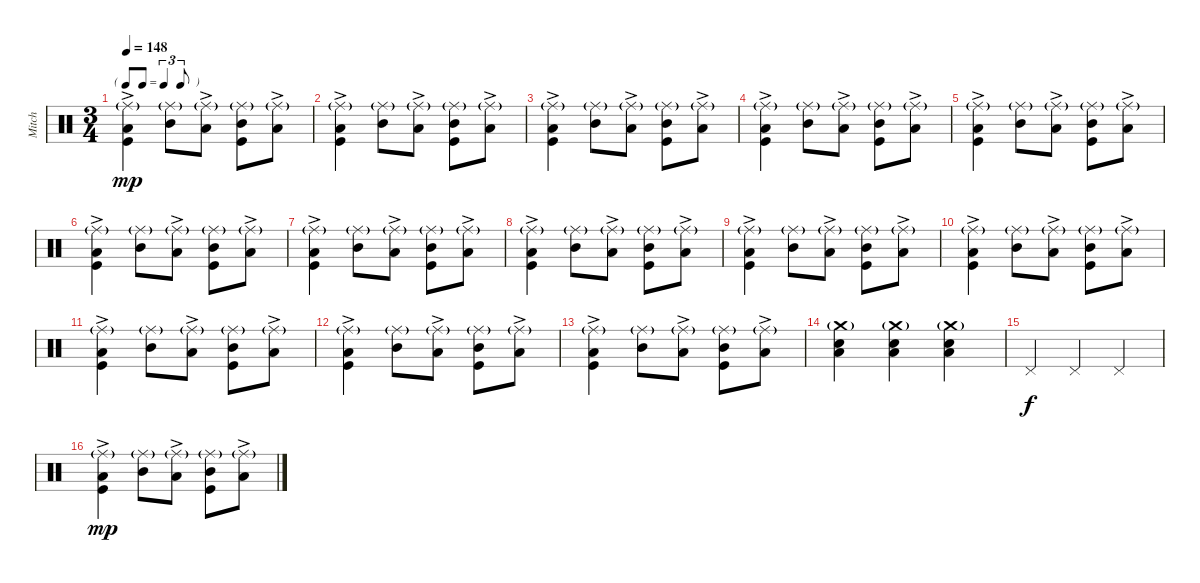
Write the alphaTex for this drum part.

\track ("Mitch" "Mitch") {instrument percussion}
\staff {score}
\articulation defaults
\ts (3 4)
\tf triplet8th
\tempo 148
\clef neutral
\ks c
("Low Floor Tom (hit)"{ac} "Kick (hit)" "Ride (middle)"{g}).4{dy mp} ("Mid Tom (hit)" "Ride (middle)"{g}).8 ("Low Tom (hit)"{ac} "Ride (middle)"{g}).8 ("Mid Tom (hit)" "Kick (hit)" "Ride (middle)"{g}).8 ("Low Tom (hit)"{ac} "Ride (middle)"{g}).8 |
("Low Floor Tom (hit)"{ac} "Kick (hit)" "Ride (middle)"{g}).4 ("Mid Tom (hit)" "Ride (middle)"{g}).8 ("Low Tom (hit)"{ac} "Ride (middle)"{g}).8 ("Mid Tom (hit)" "Kick (hit)" "Ride (middle)"{g}).8 ("Low Tom (hit)"{ac} "Ride (middle)"{g}).8 |
("Low Floor Tom (hit)"{ac} "Kick (hit)" "Ride (middle)"{g}).4 ("Mid Tom (hit)" "Ride (middle)"{g}).8 ("Low Tom (hit)"{ac} "Ride (middle)"{g}).8 ("Mid Tom (hit)" "Kick (hit)" "Ride (middle)"{g}).8 ("Low Tom (hit)"{ac} "Ride (middle)"{g}).8 |
("Low Floor Tom (hit)"{ac} "Kick (hit)" "Ride (middle)"{g}).4 ("Mid Tom (hit)" "Ride (middle)"{g}).8 ("Low Tom (hit)"{ac} "Ride (middle)"{g}).8 ("Mid Tom (hit)" "Kick (hit)" "Ride (middle)"{g}).8 ("Low Tom (hit)"{ac} "Ride (middle)"{g}).8 |
("Low Floor Tom (hit)"{ac} "Kick (hit)" "Ride (middle)"{g}).4 ("Mid Tom (hit)" "Ride (middle)"{g}).8 ("Low Tom (hit)"{ac} "Ride (middle)"{g}).8 ("Mid Tom (hit)" "Kick (hit)" "Ride (middle)"{g}).8 ("Low Tom (hit)"{ac} "Ride (middle)"{g}).8 |
("Low Floor Tom (hit)"{ac} "Kick (hit)" "Ride (middle)"{g}).4 ("Mid Tom (hit)" "Ride (middle)"{g}).8 ("Low Tom (hit)"{ac} "Ride (middle)"{g}).8 ("Mid Tom (hit)" "Kick (hit)" "Ride (middle)"{g}).8 ("Low Tom (hit)"{ac} "Ride (middle)"{g}).8 |
("Low Floor Tom (hit)"{ac} "Kick (hit)" "Ride (middle)"{g}).4 ("Mid Tom (hit)" "Ride (middle)"{g}).8 ("Low Tom (hit)"{ac} "Ride (middle)"{g}).8 ("Mid Tom (hit)" "Kick (hit)" "Ride (middle)"{g}).8 ("Low Tom (hit)"{ac} "Ride (middle)"{g}).8 |
("Low Floor Tom (hit)"{ac} "Kick (hit)" "Ride (middle)"{g}).4 ("Mid Tom (hit)" "Ride (middle)"{g}).8 ("Low Tom (hit)"{ac} "Ride (middle)"{g}).8 ("Mid Tom (hit)" "Kick (hit)" "Ride (middle)"{g}).8 ("Low Tom (hit)"{ac} "Ride (middle)"{g}).8 |
("Low Floor Tom (hit)"{ac} "Kick (hit)" "Ride (middle)"{g}).4 ("Mid Tom (hit)" "Ride (middle)"{g}).8 ("Low Tom (hit)"{ac} "Ride (middle)"{g}).8 ("Mid Tom (hit)" "Kick (hit)" "Ride (middle)"{g}).8 ("Low Tom (hit)"{ac} "Ride (middle)"{g}).8 |
("Low Floor Tom (hit)"{ac} "Kick (hit)" "Ride (middle)"{g}).4 ("Mid Tom (hit)" "Ride (middle)"{g}).8 ("Low Tom (hit)"{ac} "Ride (middle)"{g}).8 ("Mid Tom (hit)" "Kick (hit)" "Ride (middle)"{g}).8 ("Low Tom (hit)"{ac} "Ride (middle)"{g}).8 |
("Low Floor Tom (hit)"{ac} "Kick (hit)" "Ride (middle)"{g}).4 ("Mid Tom (hit)" "Ride (middle)"{g}).8 ("Low Tom (hit)"{ac} "Ride (middle)"{g}).8 ("Mid Tom (hit)" "Kick (hit)" "Ride (middle)"{g}).8 ("Low Tom (hit)"{ac} "Ride (middle)"{g}).8 |
("Low Floor Tom (hit)"{ac} "Kick (hit)" "Ride (middle)"{g}).4 ("Mid Tom (hit)" "Ride (middle)"{g}).8 ("Low Tom (hit)"{ac} "Ride (middle)"{g}).8 ("Mid Tom (hit)" "Kick (hit)" "Ride (middle)"{g}).8 ("Low Tom (hit)"{ac} "Ride (middle)"{g}).8 |
("Low Floor Tom (hit)"{ac} "Kick (hit)" "Ride (middle)"{g}).4 ("Mid Tom (hit)" "Ride (middle)"{g}).8 ("Low Tom (hit)"{ac} "Ride (middle)"{g}).8 ("Mid Tom (hit)" "Kick (hit)" "Ride (middle)"{g}).8 ("Low Tom (hit)"{ac} "Ride (middle)"{g}).8 |
("Snare (hit) 2" "Crash medium (hit)"{g} "Low Tom (hit)").4 ("Snare (hit) 2" "Crash medium (hit)"{g} "Low Tom (hit)").4 ("Snare (hit) 2" "Crash medium (hit)"{g} "Low Tom (hit)").4 |
"Pedal Hi-Hat (hit)".4{dy f} "Pedal Hi-Hat (hit)".4 "Pedal Hi-Hat (hit)".4 |
("Low Floor Tom (hit)"{ac} "Kick (hit)" "Ride (middle)"{g}).4{dy mp} ("Mid Tom (hit)" "Ride (middle)"{g}).8 ("Low Tom (hit)"{ac} "Ride (middle)"{g}).8 ("Mid Tom (hit)" "Kick (hit)" "Ride (middle)"{g}).8 ("Low Tom (hit)"{ac} "Ride (middle)"{g}).8
